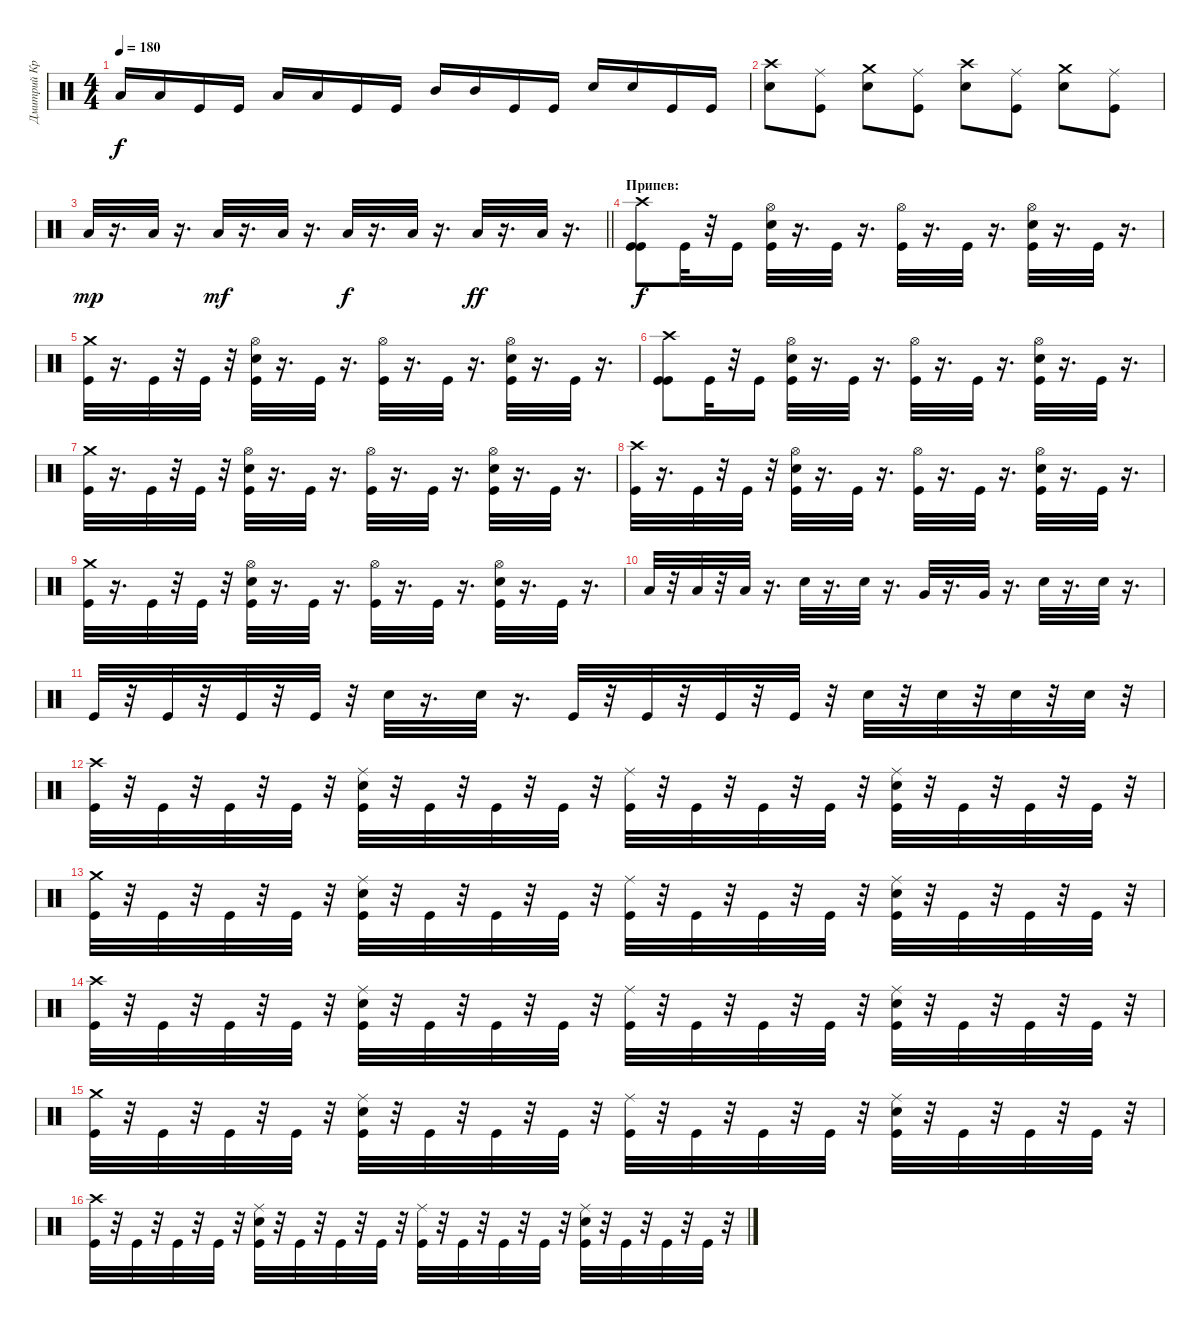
\track ("Дмитрий Кривенков" "Дмитрий Кр") {instrument percussion}
\staff {score}
\articulation defaults
\ts (4 4)
\tempo 180
\clef neutral
\ks c "Low Floor Tom (hit)".16{dy f} "Low Floor Tom (hit)".16 "Kick (hit)".16 "Kick (hit)".16 "Low Tom (hit)".16 "Low Tom (hit)".16 "Kick (hit)".16 "Kick (hit)".16 "Mid Tom (hit)".16 "Mid Tom (hit)".16 "Kick (hit)".16 "Kick (hit)".16 "Electric Snare (hit)".16 "Electric Snare (hit)".16 "Kick (hit)".16 "Kick (hit)".16
|
("Crash high (hit)" "Electric Snare (hit)").8 ("Ride (middle)" "Kick (hit)").8 ("Crash medium (hit)" "Electric Snare (hit)").8 ("Ride (middle)" "Kick (hit)").8 ("Crash high (hit)" "Electric Snare (hit)").8 ("Ride (middle)" "Kick (hit)").8 ("Crash medium (hit)" "Electric Snare (hit)").8 ("Ride (middle)" "Kick (hit)").8 |
\barLineRight lightlight "Low Floor Tom (hit)".32{dy mp}
r.16{d} "Low Floor Tom (hit)".32 r.16{d} "Low Floor Tom (hit)".32{dy mf} r.16{d} "Low Floor Tom (hit)".32 r.16{d} "Low Floor Tom (hit)".32{dy f} r.16{d} "Low Floor Tom (hit)".32 r.16{d} "Low Floor Tom (hit)".32{dy ff} r.16{d} "Low Floor Tom (hit)".32 r.16{d} |
\section ("" "Припев:")
("Kick (hit)" "Crash high (hit)" "Kick (hit)").8{dy f} "Kick (hit)".32 r.32 "Kick (hit)".16 ("Kick (hit)" "Electric Snare (hit)" "Hi-Hat (open)").32 r.16{d} "Kick (hit)".32 r.16{d} ("Kick (hit)" "Hi-Hat (open)").32 r.16{d} "Kick (hit)".32 r.16{d} ("Electric Snare (hit)" "Kick (hit)" "Hi-Hat (open)").32 r.16{d} "Kick (hit)".32 r.16{d} |
("Crash medium (hit)" "Kick (hit)").32 r.16{d} "Kick (hit)".32 r.32 "Kick (hit)".32 r.32 ("Hi-Hat (open)" "Electric Snare (hit)" "Kick (hit)").32 r.16{d} "Kick (hit)".32 r.16{d} ("Hi-Hat (open)" "Kick (hit)").32 r.16{d} "Kick (hit)".32 r.16{d} ("Electric Snare (hit)" "Hi-Hat (open)" "Kick (hit)").32 r.16{d} "Kick (hit)".32 r.16{d} |
("Kick (hit)" "Crash high (hit)" "Kick (hit)").8 "Kick (hit)".32 r.32 "Kick (hit)".16 ("Hi-Hat (open)" "Electric Snare (hit)" "Kick (hit)").32 r.16{d} "Kick (hit)".32 r.16{d} ("Hi-Hat (open)" "Kick (hit)").32 r.16{d} "Kick (hit)".32 r.16{d} ("Hi-Hat (open)" "Kick (hit)" "Electric Snare (hit)").32 r.16{d} "Kick (hit)".32 r.16{d} |
("Kick (hit)" "Crash medium (hit)").32 r.16{d} "Kick (hit)".32 r.32 "Kick (hit)".32 r.32 ("Hi-Hat (open)" "Electric Snare (hit)" "Kick (hit)").32 r.16{d} "Kick (hit)".32 r.16{d} ("Hi-Hat (open)" "Kick (hit)").32 r.16{d} "Kick (hit)".32 r.16{d} ("Electric Snare (hit)" "Hi-Hat (open)" "Kick (hit)").32 r.16{d} "Kick (hit)".32 r.16{d} |
("Crash high (hit)" "Kick (hit)").32 r.16{d} "Kick (hit)".32 r.32 "Kick (hit)".32 r.32 ("Hi-Hat (open)" "Electric Snare (hit)" "Kick (hit)").32 r.16{d} "Kick (hit)".32 r.16{d} ("Hi-Hat (open)" "Kick (hit)").32 r.16{d} "Kick (hit)".32 r.16{d} ("Hi-Hat (open)" "Kick (hit)" "Electric Snare (hit)").32 r.16{d} "Kick (hit)".32 r.16{d} |
("Crash medium (hit)" "Kick (hit)").32 r.16{d} "Kick (hit)".32 r.32 "Kick (hit)".32 r.32 ("Hi-Hat (open)" "Electric Snare (hit)" "Kick (hit)").32 r.16{d} "Kick (hit)".32 r.16{d} ("Hi-Hat (open)" "Kick (hit)").32 r.16{d} "Kick (hit)".32 r.16{d} ("Electric Snare (hit)" "Hi-Hat (open)" "Kick (hit)").32 r.16{d} "Kick (hit)".32 r.16{d} |
"Low Tom (hit)".32 r.32 "Low Tom (hit)".32 r.32 "Low Tom (hit)".32 r.16{d} "Electric Snare (hit)".32 r.16{d} "Electric Snare (hit)".32 r.16{d} "Very Low Tom (hit)".32 r.16{d} "Very Low Tom (hit)".32 r.16{d} "Electric Snare (hit)".32 r.16{d} "Electric Snare (hit)".32 r.16{d} |
"Kick (hit)".32 r.32 "Kick (hit)".32 r.32 "Kick (hit)".32 r.32 "Kick (hit)".32 r.32 "Electric Snare (hit)".32 r.16{d} "Electric Snare (hit)".32 r.16{d} "Kick (hit)".32 r.32 "Kick (hit)".32 r.32 "Kick (hit)".32 r.32 "Kick (hit)".32 r.32 "Electric Snare (hit)".32 r.32 "Electric Snare (hit)".32 r.32 "Electric Snare (hit)".32 r.32 "Electric Snare (hit)".32 r.32 |
("Crash high (hit)" "Kick (hit)").32 r.32 "Kick (hit)".32 r.32 "Kick (hit)".32 r.32 "Kick (hit)".32 r.32 ("Electric Snare (hit)" "Kick (hit)" "Ride (middle)").32 r.32 "Kick (hit)".32 r.32 "Kick (hit)".32 r.32 "Kick (hit)".32 r.32 ("Kick (hit)" "Ride (middle)").32 r.32 "Kick (hit)".32 r.32 "Kick (hit)".32 r.32 "Kick (hit)".32 r.32 ("Ride (middle)" "Kick (hit)" "Electric Snare (hit)").32 r.32 "Kick (hit)".32 r.32 "Kick (hit)".32 r.32 "Kick (hit)".32 r.32 |
("Crash medium (hit)" "Kick (hit)").32 r.32 "Kick (hit)".32 r.32 "Kick (hit)".32 r.32 "Kick (hit)".32 r.32 ("Ride (middle)" "Electric Snare (hit)" "Kick (hit)").32 r.32 "Kick (hit)".32 r.32 "Kick (hit)".32 r.32 "Kick (hit)".32 r.32 ("Ride (middle)" "Kick (hit)").32 r.32 "Kick (hit)".32 r.32 "Kick (hit)".32 r.32 "Kick (hit)".32 r.32 ("Ride (middle)" "Electric Snare (hit)" "Kick (hit)").32 r.32 "Kick (hit)".32 r.32 "Kick (hit)".32 r.32 "Kick (hit)".32 r.32 |
("Crash high (hit)" "Kick (hit)").32 r.32 "Kick (hit)".32 r.32 "Kick (hit)".32 r.32 "Kick (hit)".32 r.32 ("Electric Snare (hit)" "Kick (hit)" "Ride (middle)").32 r.32 "Kick (hit)".32 r.32 "Kick (hit)".32 r.32 "Kick (hit)".32 r.32 ("Kick (hit)" "Ride (middle)").32 r.32 "Kick (hit)".32 r.32 "Kick (hit)".32 r.32 "Kick (hit)".32 r.32 ("Electric Snare (hit)" "Kick (hit)" "Ride (middle)").32 r.32 "Kick (hit)".32 r.32 "Kick (hit)".32 r.32 "Kick (hit)".32 r.32 |
("Kick (hit)" "Crash medium (hit)").32 r.32 "Kick (hit)".32 r.32 "Kick (hit)".32 r.32 "Kick (hit)".32 r.32 ("Kick (hit)" "Electric Snare (hit)" "Ride (middle)").32 r.32 "Kick (hit)".32 r.32 "Kick (hit)".32 r.32 "Kick (hit)".32 r.32 ("Kick (hit)" "Ride (middle)").32 r.32 "Kick (hit)".32 r.32 "Kick (hit)".32 r.32 "Kick (hit)".32 r.32 ("Ride (middle)" "Electric Snare (hit)" "Kick (hit)").32 r.32 "Kick (hit)".32 r.32 "Kick (hit)".32 r.32 "Kick (hit)".32 r.32 |
("Crash high (hit)" "Kick (hit)").32 r.32 "Kick (hit)".32 r.32 "Kick (hit)".32 r.32 "Kick (hit)".32 r.32 ("Electric Snare (hit)" "Kick (hit)" "Ride (middle)").32 r.32 "Kick (hit)".32 r.32 "Kick (hit)".32 r.32 "Kick (hit)".32 r.32 ("Kick (hit)" "Ride (middle)").32 r.32 "Kick (hit)".32 r.32 "Kick (hit)".32 r.32 "Kick (hit)".32 r.32 ("Electric Snare (hit)" "Kick (hit)" "Ride (middle)").32 r.32 "Kick (hit)".32 r.32 "Kick (hit)".32 r.32 "Kick (hit)".32 r.32
